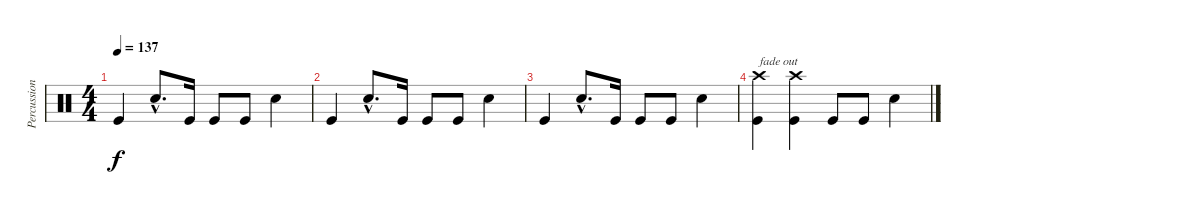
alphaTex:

\track ("Percussion" "Percussion") {instrument percussion}
\staff {score}
\articulation defaults
\ts (4 4)
\tempo 137
\clef neutral
\ks c "Kick (hit)".4{dy f} "Snare (hit) 2"{hac}.8{d} "Kick (hit)".16 "Kick (hit)".8 "Kick (hit)".8 "Snare (hit) 2".4
|
"Kick (hit)".4 "Snare (hit) 2"{hac}.8{d} "Kick (hit)".16 "Kick (hit)".8 "Kick (hit)".8 "Snare (hit) 2".4 |
"Kick (hit)".4 "Snare (hit) 2"{hac}.8{d} "Kick (hit)".16 "Kick (hit)".8 "Kick (hit)".8 "Snare (hit) 2".4 |
("Crash high (hit)" "Kick (hit)").4{txt "fade out"} ("Crash high (hit)" "Kick (hit)").4 "Kick (hit)".8 "Kick (hit)".8 "Snare (hit) 2".4
